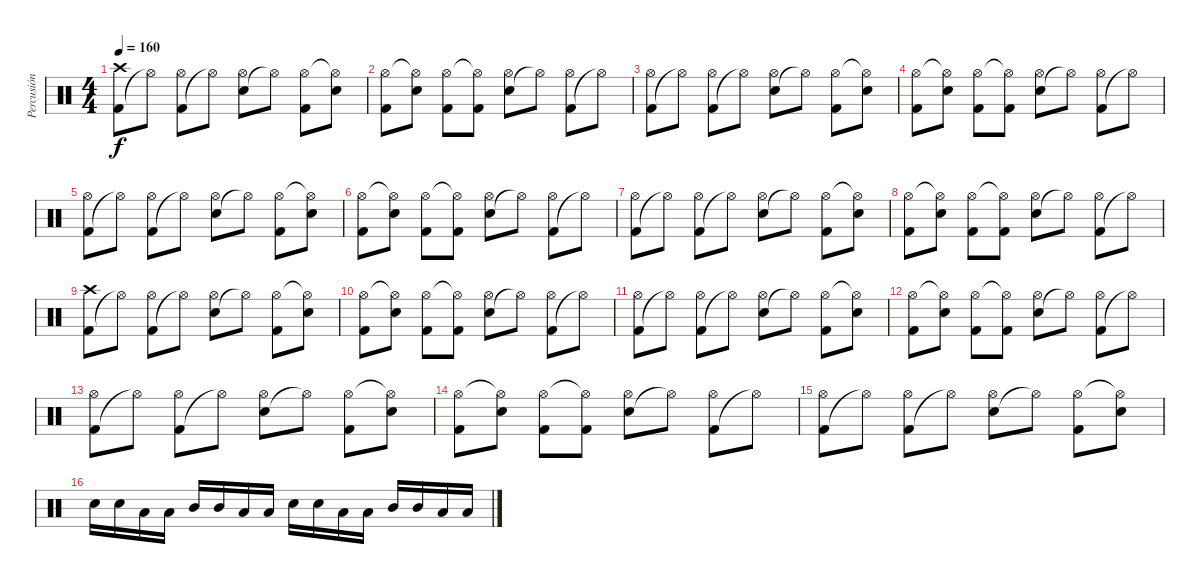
\track ("Percusión" "Percusión") {instrument percussion}
\staff {score}
\articulation defaults
\ts (4 4)
\tempo 160
\clef neutral
\ks c
("Kick (hit) 2" "Crash high (hit)").8{dy f} "Hi-Hat (open)"{t}.8 ("Kick (hit) 2" "Hi-Hat (open)").8 "Hi-Hat (open)"{t}.8 ("Snare (hit) 2" "Hi-Hat (open)").8 "Hi-Hat (open)"{t}.8 ("Kick (hit) 2" "Hi-Hat (open)").8 ("Snare (hit) 2" "Hi-Hat (open)"{t}).8 |
("Kick (hit) 2" "Hi-Hat (open)").8 ("Snare (hit) 2" "Hi-Hat (open)"{t}).8 ("Kick (hit) 2" "Hi-Hat (open)").8 ("Kick (hit) 2" "Hi-Hat (open)"{t}).8 ("Snare (hit) 2" "Hi-Hat (open)").8 "Hi-Hat (open)"{t}.8 ("Kick (hit) 2" "Hi-Hat (open)").8 "Hi-Hat (open)"{t}.8 |
("Kick (hit) 2" "Hi-Hat (open)").8 "Hi-Hat (open)"{t}.8 ("Kick (hit) 2" "Hi-Hat (open)").8 "Hi-Hat (open)"{t}.8 ("Snare (hit) 2" "Hi-Hat (open)").8 "Hi-Hat (open)"{t}.8 ("Kick (hit) 2" "Hi-Hat (open)").8 ("Snare (hit) 2" "Hi-Hat (open)"{t}).8 |
("Kick (hit) 2" "Hi-Hat (open)").8 ("Snare (hit) 2" "Hi-Hat (open)"{t}).8 ("Kick (hit) 2" "Hi-Hat (open)").8 ("Kick (hit) 2" "Hi-Hat (open)"{t}).8 ("Snare (hit) 2" "Hi-Hat (open)").8 "Hi-Hat (open)"{t}.8 ("Kick (hit) 2" "Hi-Hat (open)").8 "Hi-Hat (open)"{t}.8 |
("Kick (hit) 2" "Hi-Hat (open)").8 "Hi-Hat (open)"{t}.8 ("Kick (hit) 2" "Hi-Hat (open)").8 "Hi-Hat (open)"{t}.8 ("Snare (hit) 2" "Hi-Hat (open)").8 "Hi-Hat (open)"{t}.8 ("Kick (hit) 2" "Hi-Hat (open)").8 ("Snare (hit) 2" "Hi-Hat (open)"{t}).8 |
("Kick (hit) 2" "Hi-Hat (open)").8 ("Snare (hit) 2" "Hi-Hat (open)"{t}).8 ("Kick (hit) 2" "Hi-Hat (open)").8 ("Kick (hit) 2" "Hi-Hat (open)"{t}).8 ("Snare (hit) 2" "Hi-Hat (open)").8 "Hi-Hat (open)"{t}.8 ("Kick (hit) 2" "Hi-Hat (open)").8 "Hi-Hat (open)"{t}.8 |
("Kick (hit) 2" "Hi-Hat (open)").8 "Hi-Hat (open)"{t}.8 ("Kick (hit) 2" "Hi-Hat (open)").8 "Hi-Hat (open)"{t}.8 ("Snare (hit) 2" "Hi-Hat (open)").8 "Hi-Hat (open)"{t}.8 ("Kick (hit) 2" "Hi-Hat (open)").8 ("Snare (hit) 2" "Hi-Hat (open)"{t}).8 |
("Kick (hit) 2" "Hi-Hat (open)").8 ("Snare (hit) 2" "Hi-Hat (open)"{t}).8 ("Kick (hit) 2" "Hi-Hat (open)").8 ("Kick (hit) 2" "Hi-Hat (open)"{t}).8 ("Snare (hit) 2" "Hi-Hat (open)").8 "Hi-Hat (open)"{t}.8 ("Kick (hit) 2" "Hi-Hat (open)").8 "Hi-Hat (open)"{t}.8 |
("Kick (hit) 2" "Crash high (hit)").8 "Hi-Hat (open)"{t}.8 ("Kick (hit) 2" "Hi-Hat (open)").8 "Hi-Hat (open)"{t}.8 ("Snare (hit) 2" "Hi-Hat (open)").8 "Hi-Hat (open)"{t}.8 ("Kick (hit) 2" "Hi-Hat (open)").8 ("Snare (hit) 2" "Hi-Hat (open)"{t}).8 |
("Kick (hit) 2" "Hi-Hat (open)").8 ("Snare (hit) 2" "Hi-Hat (open)"{t}).8 ("Kick (hit) 2" "Hi-Hat (open)").8 ("Kick (hit) 2" "Hi-Hat (open)"{t}).8 ("Snare (hit) 2" "Hi-Hat (open)").8 "Hi-Hat (open)"{t}.8 ("Kick (hit) 2" "Hi-Hat (open)").8 "Hi-Hat (open)"{t}.8 |
("Kick (hit) 2" "Hi-Hat (open)").8 "Hi-Hat (open)"{t}.8 ("Kick (hit) 2" "Hi-Hat (open)").8 "Hi-Hat (open)"{t}.8 ("Snare (hit) 2" "Hi-Hat (open)").8 "Hi-Hat (open)"{t}.8 ("Kick (hit) 2" "Hi-Hat (open)").8 ("Snare (hit) 2" "Hi-Hat (open)"{t}).8 |
("Kick (hit) 2" "Hi-Hat (open)").8 ("Snare (hit) 2" "Hi-Hat (open)"{t}).8 ("Kick (hit) 2" "Hi-Hat (open)").8 ("Kick (hit) 2" "Hi-Hat (open)"{t}).8 ("Snare (hit) 2" "Hi-Hat (open)").8 "Hi-Hat (open)"{t}.8 ("Kick (hit) 2" "Hi-Hat (open)").8 "Hi-Hat (open)"{t}.8 |
("Kick (hit) 2" "Hi-Hat (open)").8 "Hi-Hat (open)"{t}.8 ("Kick (hit) 2" "Hi-Hat (open)").8 "Hi-Hat (open)"{t}.8 ("Snare (hit) 2" "Hi-Hat (open)").8 "Hi-Hat (open)"{t}.8 ("Kick (hit) 2" "Hi-Hat (open)").8 ("Snare (hit) 2" "Hi-Hat (open)"{t}).8 |
("Kick (hit) 2" "Hi-Hat (open)").8 ("Snare (hit) 2" "Hi-Hat (open)"{t}).8 ("Kick (hit) 2" "Hi-Hat (open)").8 ("Kick (hit) 2" "Hi-Hat (open)"{t}).8 ("Snare (hit) 2" "Hi-Hat (open)").8 "Hi-Hat (open)"{t}.8 ("Kick (hit) 2" "Hi-Hat (open)").8 "Hi-Hat (open)"{t}.8 |
("Kick (hit) 2" "Hi-Hat (open)").8 "Hi-Hat (open)"{t}.8 ("Kick (hit) 2" "Hi-Hat (open)").8 "Hi-Hat (open)"{t}.8 ("Snare (hit) 2" "Hi-Hat (open)").8 "Hi-Hat (open)"{t}.8 ("Kick (hit) 2" "Hi-Hat (open)").8 ("Snare (hit) 2" "Hi-Hat (open)"{t}).8 |
"Snare (hit) 2".16 "Snare (hit) 2".16 "Low Tom (hit)".16 "Low Tom (hit)".16 "Mid Tom (hit)".16 "Mid Tom (hit)".16 "Low Floor Tom (hit)".16 "Low Floor Tom (hit)".16 "Snare (hit) 2".16 "Snare (hit) 2".16 "Low Tom (hit)".16 "Low Tom (hit)".16 "Mid Tom (hit)".16 "Mid Tom (hit)".16 "Low Floor Tom (hit)".16 "Low Floor Tom (hit)".16
